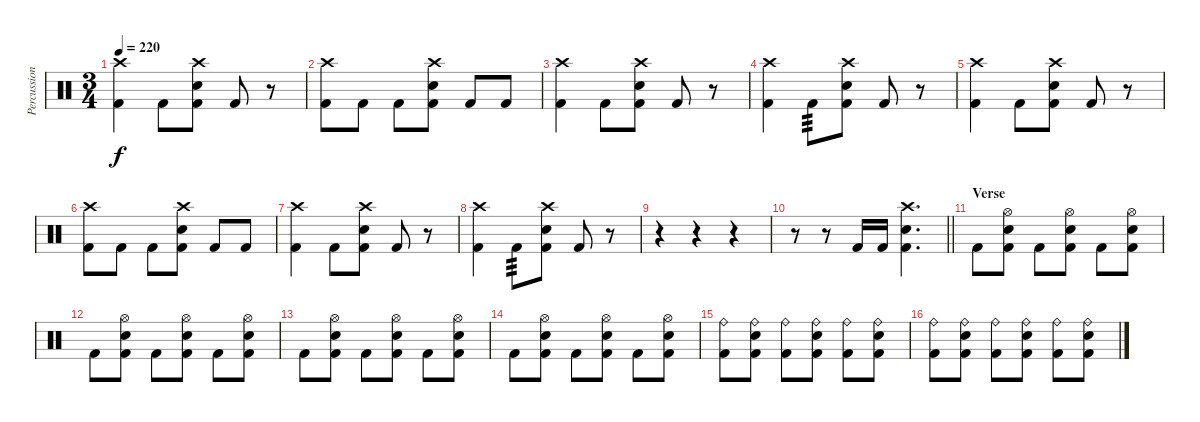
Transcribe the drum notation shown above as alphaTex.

\track ("Percussion" "Percussion") {instrument percussion}
\staff {score}
\articulation defaults
\ts (3 4)
\tempo 220
\clef neutral
\ks c
("Crash high (hit)" "Kick (hit) 2").4{dy f} "Kick (hit) 2".8 ("Crash high (hit)" "Electric Snare (hit)" "Kick (hit) 2").8 "Kick (hit) 2".8 r.8 |
("Crash high (hit)" "Kick (hit) 2").8 "Kick (hit) 2".8 "Kick (hit) 2".8 ("Crash high (hit)" "Electric Snare (hit)" "Kick (hit) 2").8 "Kick (hit) 2".8 "Kick (hit) 2".8 |
("Crash high (hit)" "Kick (hit) 2").4 "Kick (hit) 2".8 ("Crash high (hit)" "Electric Snare (hit)" "Kick (hit) 2").8 "Kick (hit) 2".8 r.8 |
("Crash high (hit)" "Kick (hit) 2").4 "Kick (hit) 2".8{tp 3} ("Crash high (hit)" "Electric Snare (hit)" "Kick (hit) 2").8 "Kick (hit) 2".8 r.8 |
("Crash high (hit)" "Kick (hit) 2").4 "Kick (hit) 2".8 ("Crash high (hit)" "Electric Snare (hit)" "Kick (hit) 2").8 "Kick (hit) 2".8 r.8 |
("Crash high (hit)" "Kick (hit) 2").8 "Kick (hit) 2".8 "Kick (hit) 2".8 ("Crash high (hit)" "Electric Snare (hit)" "Kick (hit) 2").8 "Kick (hit) 2".8 "Kick (hit) 2".8 |
("Crash high (hit)" "Kick (hit) 2").4 "Kick (hit) 2".8 ("Crash high (hit)" "Electric Snare (hit)" "Kick (hit) 2").8 "Kick (hit) 2".8 r.8 |
("Crash high (hit)" "Kick (hit) 2").4 "Kick (hit) 2".8{tp 3} ("Crash high (hit)" "Electric Snare (hit)" "Kick (hit) 2").8 "Kick (hit) 2".8 r.8 |
r.4 r.4 r.4 |
\barLineRight lightlight
r.8 r.8 "Kick (hit) 2".16 "Kick (hit) 2".16 ("Crash high (hit)" "Electric Snare (hit)" "Kick (hit) 2").4{d} |
\section ("" "Verse")
"Kick (hit) 2".8 ("Hi-Hat (open)" "Electric Snare (hit)" "Kick (hit) 2").8 "Kick (hit) 2".8 ("Hi-Hat (open)" "Electric Snare (hit)" "Kick (hit) 2").8 "Kick (hit) 2".8 ("Hi-Hat (open)" "Electric Snare (hit)" "Kick (hit) 2").8 |
"Kick (hit) 2".8 ("Hi-Hat (open)" "Electric Snare (hit)" "Kick (hit) 2").8 "Kick (hit) 2".8 ("Hi-Hat (open)" "Electric Snare (hit)" "Kick (hit) 2").8 "Kick (hit) 2".8 ("Hi-Hat (open)" "Electric Snare (hit)" "Kick (hit) 2").8 |
"Kick (hit) 2".8 ("Hi-Hat (open)" "Electric Snare (hit)" "Kick (hit) 2").8 "Kick (hit) 2".8 ("Hi-Hat (open)" "Electric Snare (hit)" "Kick (hit) 2").8 "Kick (hit) 2".8 ("Hi-Hat (open)" "Electric Snare (hit)" "Kick (hit) 2").8 |
"Kick (hit) 2".8 ("Hi-Hat (open)" "Electric Snare (hit)" "Kick (hit) 2").8 "Kick (hit) 2".8 ("Hi-Hat (open)" "Electric Snare (hit)" "Kick (hit) 2").8 "Kick (hit) 2".8 ("Hi-Hat (open)" "Electric Snare (hit)" "Kick (hit) 2").8 |
("Ride (bell)" "Kick (hit) 2").8 ("Ride (bell)" "Electric Snare (hit)" "Kick (hit) 2").8 ("Ride (bell)" "Kick (hit) 2").8 ("Ride (bell)" "Electric Snare (hit)" "Kick (hit) 2").8 ("Ride (bell)" "Kick (hit) 2").8 ("Ride (bell)" "Electric Snare (hit)" "Kick (hit) 2").8 |
("Ride (bell)" "Kick (hit) 2").8 ("Ride (bell)" "Electric Snare (hit)" "Kick (hit) 2").8 ("Ride (bell)" "Kick (hit) 2").8 ("Ride (bell)" "Electric Snare (hit)" "Kick (hit) 2").8 ("Ride (bell)" "Kick (hit) 2").8 ("Ride (bell)" "Electric Snare (hit)" "Kick (hit) 2").8
